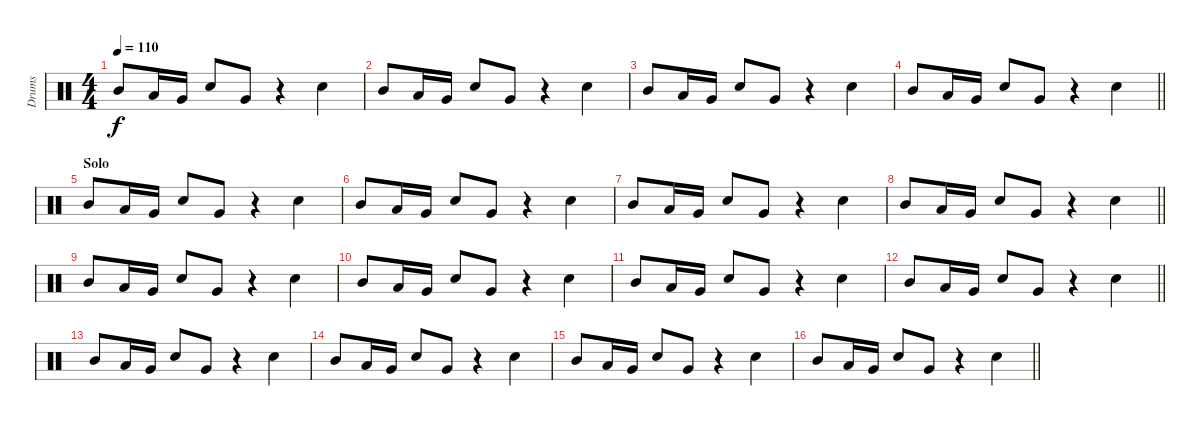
\track ("Drums" "Drums") {instrument percussion}
\staff {score}
\articulation defaults
\ts (4 4)
\tempo 110
\clef neutral
\ks c "Mid Tom (hit)".8{dy f} "Low Tom (hit)".16 "Very Low Tom (hit)".16 "Snare (hit) 2".8 "Very Low Tom (hit)".8
r.4 "Snare (hit) 2".4 |
"Mid Tom (hit)".8 "Low Tom (hit)".16 "Very Low Tom (hit)".16 "Snare (hit) 2".8 "Very Low Tom (hit)".8 r.4 "Snare (hit) 2".4 |
"Mid Tom (hit)".8 "Low Tom (hit)".16 "Very Low Tom (hit)".16 "Snare (hit) 2".8 "Very Low Tom (hit)".8 r.4 "Snare (hit) 2".4 |
\barLineRight lightlight "Mid Tom (hit)".8 "Low Tom (hit)".16 "Very Low Tom (hit)".16 "Snare (hit) 2".8 "Very Low Tom (hit)".8
r.4 "Snare (hit) 2".4 |
\section ("" "Solo")
"Mid Tom (hit)".8 "Low Tom (hit)".16 "Very Low Tom (hit)".16 "Snare (hit) 2".8 "Very Low Tom (hit)".8 r.4 "Snare (hit) 2".4 |
"Mid Tom (hit)".8 "Low Tom (hit)".16 "Very Low Tom (hit)".16 "Snare (hit) 2".8 "Very Low Tom (hit)".8 r.4 "Snare (hit) 2".4 |
"Mid Tom (hit)".8 "Low Tom (hit)".16 "Very Low Tom (hit)".16 "Snare (hit) 2".8 "Very Low Tom (hit)".8 r.4 "Snare (hit) 2".4 |
\barLineRight lightlight "Mid Tom (hit)".8 "Low Tom (hit)".16 "Very Low Tom (hit)".16 "Snare (hit) 2".8 "Very Low Tom (hit)".8
r.4 "Snare (hit) 2".4 |
"Mid Tom (hit)".8 "Low Tom (hit)".16 "Very Low Tom (hit)".16 "Snare (hit) 2".8 "Very Low Tom (hit)".8 r.4 "Snare (hit) 2".4 |
"Mid Tom (hit)".8 "Low Tom (hit)".16 "Very Low Tom (hit)".16 "Snare (hit) 2".8 "Very Low Tom (hit)".8 r.4 "Snare (hit) 2".4 |
"Mid Tom (hit)".8 "Low Tom (hit)".16 "Very Low Tom (hit)".16 "Snare (hit) 2".8 "Very Low Tom (hit)".8 r.4 "Snare (hit) 2".4 |
\barLineRight lightlight "Mid Tom (hit)".8 "Low Tom (hit)".16 "Very Low Tom (hit)".16 "Snare (hit) 2".8 "Very Low Tom (hit)".8
r.4 "Snare (hit) 2".4 |
"Mid Tom (hit)".8 "Low Tom (hit)".16 "Very Low Tom (hit)".16 "Snare (hit) 2".8 "Very Low Tom (hit)".8 r.4 "Snare (hit) 2".4 |
"Mid Tom (hit)".8 "Low Tom (hit)".16 "Very Low Tom (hit)".16 "Snare (hit) 2".8 "Very Low Tom (hit)".8 r.4 "Snare (hit) 2".4 |
"Mid Tom (hit)".8 "Low Tom (hit)".16 "Very Low Tom (hit)".16 "Snare (hit) 2".8 "Very Low Tom (hit)".8 r.4 "Snare (hit) 2".4 |
\barLineRight lightlight "Mid Tom (hit)".8 "Low Tom (hit)".16 "Very Low Tom (hit)".16 "Snare (hit) 2".8 "Very Low Tom (hit)".8
r.4 "Snare (hit) 2".4
